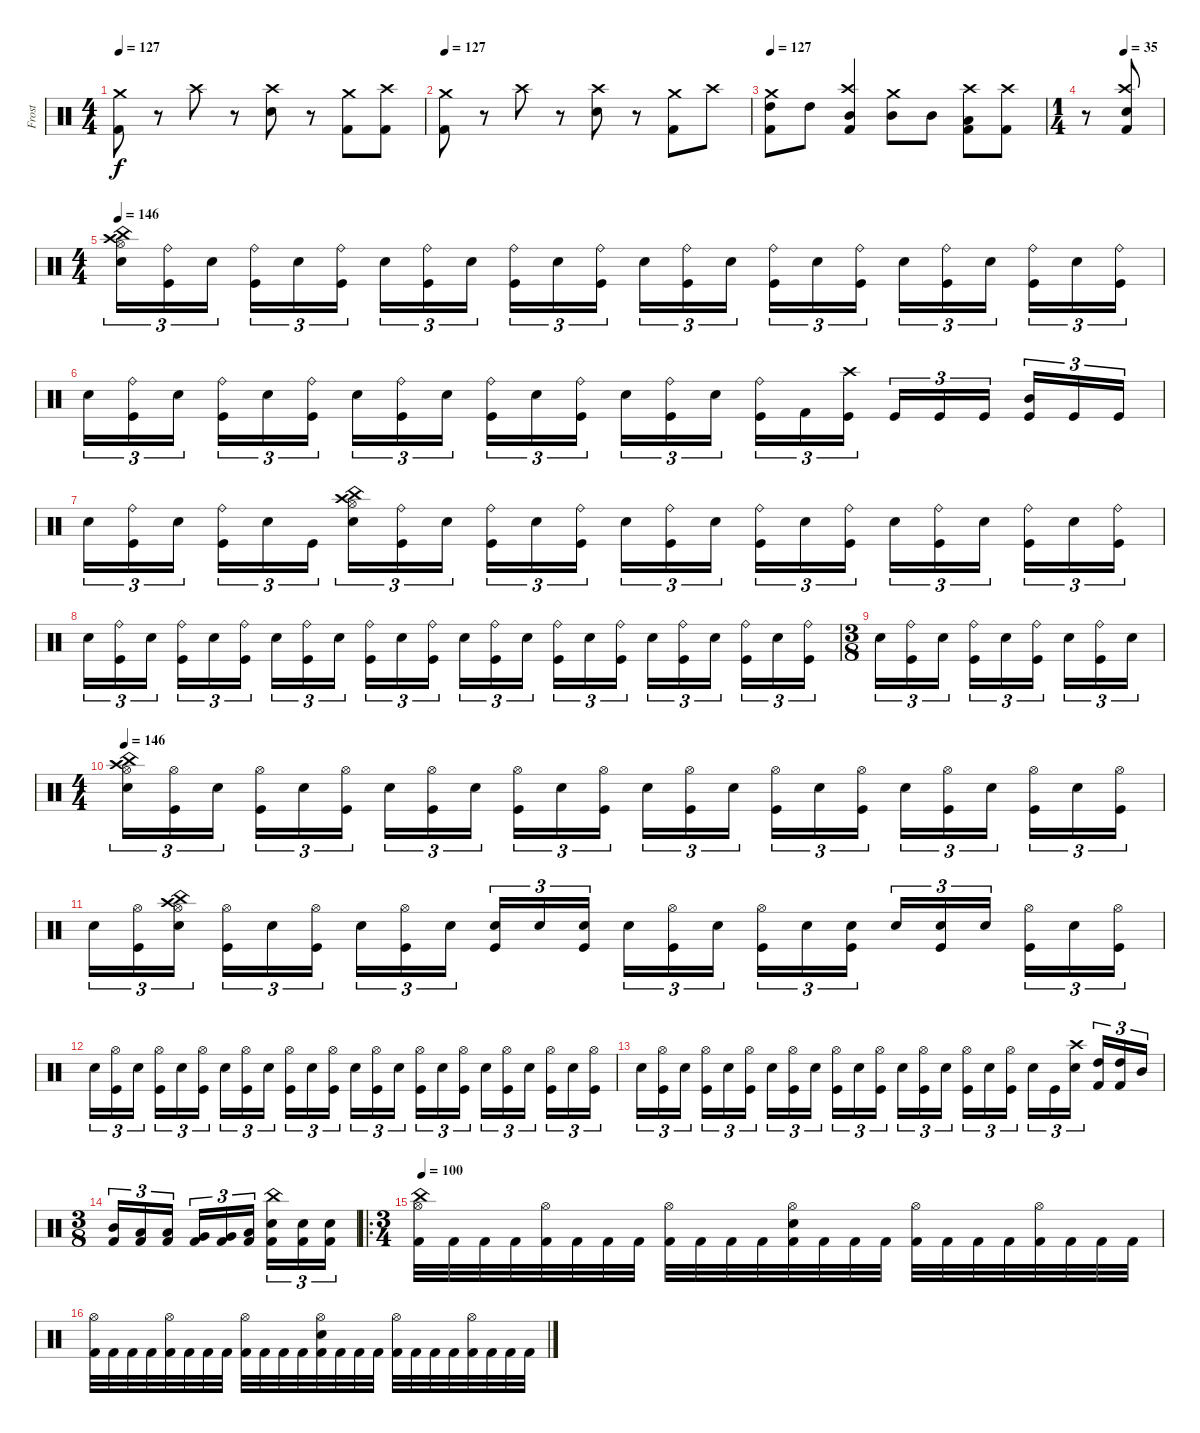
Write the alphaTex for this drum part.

\track ("Frost" "Frost") {instrument percussion}
\staff {score}
\articulation defaults
\ts (4 4)
\tempo 127
\clef neutral
\ks c
("Crash medium (hit)" "Kick (hit) 2").8{dy f} r.8 "Crash high (hit)".8 r.8 ("Crash high (hit)" "Electric Snare (hit)").8 r.8 ("Crash medium (hit)" "Kick (hit) 2").8 ("Crash high (hit)" "Kick (hit) 2").8 |
\tempo 127
("Crash medium (hit)" "Kick (hit) 2").8 r.8 "Crash high (hit)".8 r.8 ("Crash high (hit)" "Electric Snare (hit)").8 r.8 ("Crash medium (hit)" "Kick (hit) 2").8 "Crash high (hit)".8 |
\tempo 127
("Crash medium (hit)" "High Tom (hit)" "Kick (hit) 2").8 "High Tom (hit)".8 ("Crash high (hit)" "Mid Tom (hit)" "Kick (hit) 2").4 ("Crash medium (hit)" "Mid Tom (hit)").8 "Mid Tom (hit)".8 ("Crash high (hit)" "Low Tom (hit)" "Kick (hit) 2").8 ("Crash high (hit)" "Kick (hit) 2").8 |
\ts (1 4)
\tempo (35 0.5)
r.8 ("Crash high (hit)" "Snare (hit)" "Kick (hit) 2").8 |
\ts (4 4)
\tempo 146
("China (hit)" "Crash high (hit)" "Electric Snare (hit)" "Hi-Hat (open)").16{tu (3 2)} ("Ride (bell)" "Kick (hit)").16{tu (3 2)} "Electric Snare (hit)".16{tu (3 2)} ("Ride (bell)" "Kick (hit)").16{tu (3 2)} "Electric Snare (hit)".16{tu (3 2)} ("Ride (bell)" "Kick (hit)").16{tu (3 2)} "Electric Snare (hit)".16{tu (3 2)} ("Ride (bell)" "Kick (hit)").16{tu (3 2)} "Electric Snare (hit)".16{tu (3 2)} ("Ride (bell)" "Kick (hit)").16{tu (3 2)} "Electric Snare (hit)".16{tu (3 2)} ("Ride (bell)" "Kick (hit)").16{tu (3 2)} "Electric Snare (hit)".16{tu (3 2)} ("Ride (bell)" "Kick (hit)").16{tu (3 2)} "Electric Snare (hit)".16{tu (3 2)} ("Ride (bell)" "Kick (hit)").16{tu (3 2)} "Electric Snare (hit)".16{tu (3 2)} ("Ride (bell)" "Kick (hit)").16{tu (3 2)} "Electric Snare (hit)".16{tu (3 2)} ("Ride (bell)" "Kick (hit)").16{tu (3 2)} "Electric Snare (hit)".16{tu (3 2)} ("Ride (bell)" "Kick (hit)").16{tu (3 2)} "Electric Snare (hit)".16{tu (3 2)} ("Ride (bell)" "Kick (hit)").16{tu (3 2)} |
"Electric Snare (hit)".16{tu (3 2)} ("Ride (bell)" "Kick (hit)").16{tu (3 2)} "Electric Snare (hit)".16{tu (3 2)} ("Ride (bell)" "Kick (hit)").16{tu (3 2)} "Electric Snare (hit)".16{tu (3 2)} ("Ride (bell)" "Kick (hit)").16{tu (3 2)} "Electric Snare (hit)".16{tu (3 2)} ("Ride (bell)" "Kick (hit)").16{tu (3 2)} "Electric Snare (hit)".16{tu (3 2)} ("Ride (bell)" "Kick (hit)").16{tu (3 2)} "Electric Snare (hit)".16{tu (3 2)} ("Ride (bell)" "Kick (hit)").16{tu (3 2)} "Electric Snare (hit)".16{tu (3 2)} ("Ride (bell)" "Kick (hit)").16{tu (3 2)} "Electric Snare (hit)".16{tu (3 2)} ("Ride (bell)" "Kick (hit)").16{tu (3 2)} "Kick (hit) 2".16{tu (3 2)} ("Crash high (hit)" "Kick (hit)").16{tu (3 2)} "Kick (hit)".16{tu (3 2)} "Kick (hit)".16{tu (3 2)} "Kick (hit)".16{tu (3 2)} ("Mid Tom (hit)" "Kick (hit)").16{tu (3 2)} "Kick (hit)".16{tu (3 2)} "Kick (hit)".16{tu (3 2)} |
"Electric Snare (hit)".16{tu (3 2)} ("Ride (bell)" "Kick (hit)").16{tu (3 2)} "Electric Snare (hit)".16{tu (3 2)} ("Ride (bell)" "Kick (hit)").16{tu (3 2)} "Electric Snare (hit)".16{tu (3 2)} "Kick (hit)".16{tu (3 2)} ("China (hit)" "Crash high (hit)" "Hi-Hat (open)" "Electric Snare (hit)").16{tu (3 2)} ("Ride (bell)" "Kick (hit)").16{tu (3 2)} "Electric Snare (hit)".16{tu (3 2)} ("Ride (bell)" "Kick (hit)").16{tu (3 2)} "Electric Snare (hit)".16{tu (3 2)} ("Ride (bell)" "Kick (hit)").16{tu (3 2)} "Electric Snare (hit)".16{tu (3 2)} ("Ride (bell)" "Kick (hit)").16{tu (3 2)} "Electric Snare (hit)".16{tu (3 2)} ("Ride (bell)" "Kick (hit)").16{tu (3 2)} "Electric Snare (hit)".16{tu (3 2)} ("Ride (bell)" "Kick (hit)").16{tu (3 2)} "Electric Snare (hit)".16{tu (3 2)} ("Ride (bell)" "Kick (hit)").16{tu (3 2)} "Electric Snare (hit)".16{tu (3 2)} ("Ride (bell)" "Kick (hit)").16{tu (3 2)} "Electric Snare (hit)".16{tu (3 2)} ("Ride (bell)" "Kick (hit)").16{tu (3 2)} |
"Electric Snare (hit)".16{tu (3 2)} ("Ride (bell)" "Kick (hit)").16{tu (3 2)} "Electric Snare (hit)".16{tu (3 2)} ("Ride (bell)" "Kick (hit)").16{tu (3 2)} "Electric Snare (hit)".16{tu (3 2)} ("Ride (bell)" "Kick (hit)").16{tu (3 2)} "Electric Snare (hit)".16{tu (3 2)} ("Ride (bell)" "Kick (hit)").16{tu (3 2)} "Electric Snare (hit)".16{tu (3 2)} ("Ride (bell)" "Kick (hit)").16{tu (3 2)} "Electric Snare (hit)".16{tu (3 2)} ("Ride (bell)" "Kick (hit)").16{tu (3 2)} "Electric Snare (hit)".16{tu (3 2)} ("Ride (bell)" "Kick (hit)").16{tu (3 2)} "Electric Snare (hit)".16{tu (3 2)} ("Ride (bell)" "Kick (hit)").16{tu (3 2)} "Electric Snare (hit)".16{tu (3 2)} ("Ride (bell)" "Kick (hit)").16{tu (3 2)} "Electric Snare (hit)".16{tu (3 2)} ("Ride (bell)" "Kick (hit)").16{tu (3 2)} "Electric Snare (hit)".16{tu (3 2)} ("Ride (bell)" "Kick (hit)").16{tu (3 2)} "Electric Snare (hit)".16{tu (3 2)} ("Ride (bell)" "Kick (hit)").16{tu (3 2)} |
\ts (3 8)
"Electric Snare (hit)".16{tu (3 2)} ("Ride (bell)" "Kick (hit)").16{tu (3 2)} "Electric Snare (hit)".16{tu (3 2)} ("Ride (bell)" "Kick (hit)").16{tu (3 2)} "Electric Snare (hit)".16{tu (3 2)} ("Ride (bell)" "Kick (hit)").16{tu (3 2)} "Electric Snare (hit)".16{tu (3 2)} ("Ride (bell)" "Kick (hit)").16{tu (3 2)} "Electric Snare (hit)".16{tu (3 2)} |
\ts (4 4)
\tempo 146
("China (hit)" "Crash high (hit)" "Electric Snare (hit)" "Hi-Hat (open)").16{tu (3 2)} ("Hi-Hat (open)" "Kick (hit)").16{tu (3 2)} "Electric Snare (hit)".16{tu (3 2)} ("Hi-Hat (open)" "Kick (hit)").16{tu (3 2)} "Electric Snare (hit)".16{tu (3 2)} ("Hi-Hat (open)" "Kick (hit)").16{tu (3 2)} "Electric Snare (hit)".16{tu (3 2)} ("Hi-Hat (open)" "Kick (hit)").16{tu (3 2)} "Electric Snare (hit)".16{tu (3 2)} ("Hi-Hat (open)" "Kick (hit)").16{tu (3 2)} "Electric Snare (hit)".16{tu (3 2)} ("Hi-Hat (open)" "Kick (hit)").16{tu (3 2)} "Electric Snare (hit)".16{tu (3 2)} ("Hi-Hat (open)" "Kick (hit)").16{tu (3 2)} "Electric Snare (hit)".16{tu (3 2)} ("Hi-Hat (open)" "Kick (hit)").16{tu (3 2)} "Electric Snare (hit)".16{tu (3 2)} ("Hi-Hat (open)" "Kick (hit)").16{tu (3 2)} "Electric Snare (hit)".16{tu (3 2)} ("Hi-Hat (open)" "Kick (hit)").16{tu (3 2)} "Electric Snare (hit)".16{tu (3 2)} ("Hi-Hat (open)" "Kick (hit)").16{tu (3 2)} "Electric Snare (hit)".16{tu (3 2)} ("Hi-Hat (open)" "Kick (hit)").16{tu (3 2)} |
"Electric Snare (hit)".16{tu (3 2)} ("Hi-Hat (open)" "Kick (hit)").16{tu (3 2)} ("China (hit)" "Crash high (hit)" "Hi-Hat (open)" "Electric Snare (hit)").16{tu (3 2)} ("Hi-Hat (open)" "Kick (hit)").16{tu (3 2)} "Electric Snare (hit)".16{tu (3 2)} ("Hi-Hat (open)" "Kick (hit)").16{tu (3 2)} "Electric Snare (hit)".16{tu (3 2)} ("Hi-Hat (open)" "Kick (hit)").16{tu (3 2)} "Electric Snare (hit)".16{tu (3 2)} ("Kick (hit)" "Electric Snare (hit)").16{tu (3 2)} "Electric Snare (hit)".16{tu (3 2)} ("Kick (hit)" "Snare (hit) 2").16{tu (3 2)} "Electric Snare (hit)".16{tu (3 2)} ("Hi-Hat (open)" "Kick (hit)").16{tu (3 2)} "Electric Snare (hit)".16{tu (3 2)} ("Hi-Hat (open)" "Kick (hit)").16{tu (3 2)} "Electric Snare (hit)".16{tu (3 2)} ("Kick (hit)" "Electric Snare (hit)").16{tu (3 2)} "Electric Snare (hit)".16{tu (3 2)} ("Kick (hit)" "Snare (hit) 2").16{tu (3 2)} "Electric Snare (hit)".16{tu (3 2)} ("Hi-Hat (open)" "Kick (hit)").16{tu (3 2)} "Electric Snare (hit)".16{tu (3 2)} ("Hi-Hat (open)" "Kick (hit)").16{tu (3 2)} |
"Electric Snare (hit)".16{tu (3 2)} ("Hi-Hat (open)" "Kick (hit)").16{tu (3 2)} "Electric Snare (hit)".16{tu (3 2)} ("Hi-Hat (open)" "Kick (hit)").16{tu (3 2)} "Electric Snare (hit)".16{tu (3 2)} ("Hi-Hat (open)" "Kick (hit)").16{tu (3 2)} "Electric Snare (hit)".16{tu (3 2)} ("Hi-Hat (open)" "Kick (hit)").16{tu (3 2)} "Electric Snare (hit)".16{tu (3 2)} ("Hi-Hat (open)" "Kick (hit)").16{tu (3 2)} "Electric Snare (hit)".16{tu (3 2)} ("Hi-Hat (open)" "Kick (hit)").16{tu (3 2)} "Electric Snare (hit)".16{tu (3 2)} ("Hi-Hat (open)" "Kick (hit)").16{tu (3 2)} "Electric Snare (hit)".16{tu (3 2)} ("Hi-Hat (open)" "Kick (hit)").16{tu (3 2)} "Electric Snare (hit)".16{tu (3 2)} ("Hi-Hat (open)" "Kick (hit)").16{tu (3 2)} "Electric Snare (hit)".16{tu (3 2)} ("Hi-Hat (open)" "Kick (hit)").16{tu (3 2)} "Electric Snare (hit)".16{tu (3 2)} ("Hi-Hat (open)" "Kick (hit)").16{tu (3 2)} "Electric Snare (hit)".16{tu (3 2)} ("Hi-Hat (open)" "Kick (hit)").16{tu (3 2)} |
"Electric Snare (hit)".16{tu (3 2)} ("Hi-Hat (open)" "Kick (hit)").16{tu (3 2)} "Electric Snare (hit)".16{tu (3 2)} ("Hi-Hat (open)" "Kick (hit)").16{tu (3 2)} "Electric Snare (hit)".16{tu (3 2)} ("Hi-Hat (open)" "Kick (hit)").16{tu (3 2)} "Electric Snare (hit)".16{tu (3 2)} ("Hi-Hat (open)" "Kick (hit)").16{tu (3 2)} "Electric Snare (hit)".16{tu (3 2)} ("Hi-Hat (open)" "Kick (hit)").16{tu (3 2)} "Electric Snare (hit)".16{tu (3 2)} ("Hi-Hat (open)" "Kick (hit)").16{tu (3 2)} "Electric Snare (hit)".16{tu (3 2)} ("Hi-Hat (open)" "Kick (hit)").16{tu (3 2)} "Electric Snare (hit)".16{tu (3 2)} ("Hi-Hat (open)" "Kick (hit)").16{tu (3 2)} "Electric Snare (hit)".16{tu (3 2)} ("Hi-Hat (open)" "Kick (hit)").16{tu (3 2)} "Electric Snare (hit)".16{tu (3 2)} "Kick (hit)".16{tu (3 2)} ("Crash high (hit)" "Electric Snare (hit)").16{tu (3 2)} ("Kick (hit) 2" "High Tom (hit)").16{tu (3 2)} ("Kick (hit) 2" "High Tom (hit)").16{tu (3 2)} "Mid Tom (hit)".16{tu (3 2)} |
\ts (3 8)
("Kick (hit) 2" "Mid Tom (hit)").16{tu (3 2)} ("Kick (hit) 2" "Low Tom (hit)").16{tu (3 2)} ("Kick (hit) 2" "Low Tom (hit)").16{tu (3 2)} ("Kick (hit) 2" "Very Low Tom (hit)").16{tu (3 2)} ("Kick (hit) 2" "Very Low Tom (hit)").16{tu (3 2)} ("Kick (hit) 2" "Low Floor Tom (hit)").16{tu (3 2)} ("Kick (hit) 2" "China (hit)" "Electric Snare (hit)").16{tu (3 2)} ("Kick (hit) 2" "Electric Snare (hit)").16{tu (3 2)} ("Kick (hit) 2" "Electric Snare (hit)").16{tu (3 2)} |
\ro
\ts (3 4)
\tempo 120
\tempo 100
("China (hit)" "Kick (hit) 2" "Hi-Hat (open)").32 "Kick (hit) 2".32 "Kick (hit) 2".32 "Kick (hit) 2".32 ("Kick (hit) 2" "Hi-Hat (open)").32 "Kick (hit) 2".32 "Kick (hit) 2".32 "Kick (hit) 2".32 ("Kick (hit) 2" "Hi-Hat (open)").32 "Kick (hit) 2".32 "Kick (hit) 2".32 "Kick (hit) 2".32 ("Kick (hit) 2" "Electric Snare (hit)" "Hi-Hat (open)").32 "Kick (hit) 2".32 "Kick (hit) 2".32 "Kick (hit) 2".32 ("Kick (hit) 2" "Hi-Hat (open)").32 "Kick (hit) 2".32 "Kick (hit) 2".32 "Kick (hit) 2".32 ("Kick (hit) 2" "Hi-Hat (open)").32 "Kick (hit) 2".32 "Kick (hit) 2".32 "Kick (hit) 2".32 |
("Kick (hit) 2" "Hi-Hat (open)").32 "Kick (hit) 2".32 "Kick (hit) 2".32 "Kick (hit) 2".32 ("Kick (hit) 2" "Hi-Hat (open)").32 "Kick (hit) 2".32 "Kick (hit) 2".32 "Kick (hit) 2".32 ("Kick (hit) 2" "Hi-Hat (open)").32 "Kick (hit) 2".32 "Kick (hit) 2".32 "Kick (hit) 2".32 ("Kick (hit) 2" "Electric Snare (hit)" "Hi-Hat (open)").32 "Kick (hit) 2".32 "Kick (hit) 2".32 "Kick (hit) 2".32 ("Kick (hit) 2" "Hi-Hat (open)").32 "Kick (hit) 2".32 "Kick (hit) 2".32 "Kick (hit) 2".32 ("Kick (hit) 2" "Hi-Hat (open)").32 "Kick (hit) 2".32 "Kick (hit) 2".32 "Kick (hit) 2".32
